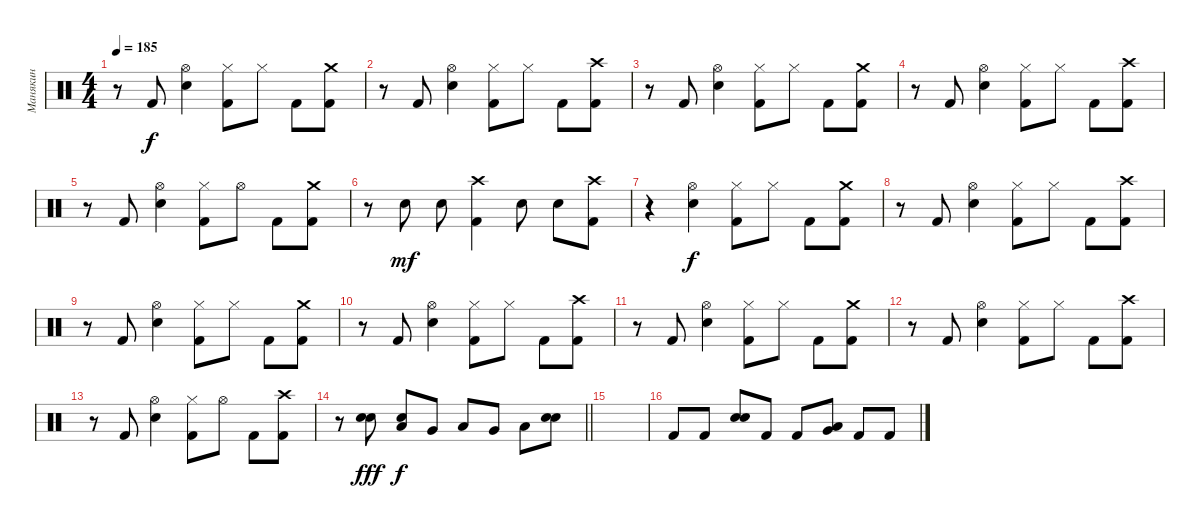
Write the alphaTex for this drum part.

\track ("Манякин" "Манякин") {instrument percussion}
\staff {score}
\articulation defaults
\ts (4 4)
\tempo 185
\clef neutral
\ks c
r.8{dy f} "Kick (hit) 2".8 ("Hi-Hat (open)" "Electric Snare (hit)").4 ("Hi-Hat (closed)" "Kick (hit) 2").8 "Hi-Hat (closed)".8 "Kick (hit) 2".8 ("Crash medium (hit)" "Kick (hit) 2").8 |
r.8 "Kick (hit) 2".8 ("Hi-Hat (open)" "Electric Snare (hit)").4 ("Hi-Hat (closed)" "Kick (hit) 2").8 "Hi-Hat (closed)".8 "Kick (hit) 2".8 ("Crash high (hit)" "Kick (hit) 2").8 |
r.8 "Kick (hit) 2".8 ("Hi-Hat (open)" "Electric Snare (hit)").4 ("Hi-Hat (closed)" "Kick (hit) 2").8 "Hi-Hat (closed)".8 "Kick (hit) 2".8 ("Crash medium (hit)" "Kick (hit) 2").8 |
r.8 "Kick (hit) 2".8 ("Hi-Hat (open)" "Electric Snare (hit)").4 ("Hi-Hat (closed)" "Kick (hit) 2").8 "Hi-Hat (closed)".8 "Kick (hit) 2".8 ("Crash high (hit)" "Kick (hit) 2").8 |
r.8 "Kick (hit) 2".8 ("Hi-Hat (open)" "Electric Snare (hit)").4 ("Hi-Hat (closed)" "Kick (hit) 2").8 "Hi-Hat (open)".8 "Kick (hit) 2".8 ("Crash medium (hit)" "Kick (hit) 2").8 |
r.8 "Electric Snare (hit)".8{dy mf} "Electric Snare (hit)".8 ("Crash high (hit)" "Kick (hit) 2").4 "Electric Snare (hit)".8 "Electric Snare (hit)".8 ("Crash high (hit)" "Kick (hit) 2").8 |
r.4 ("Hi-Hat (open)" "Electric Snare (hit)").4{dy f} ("Hi-Hat (closed)" "Kick (hit) 2").8 "Hi-Hat (closed)".8 "Kick (hit) 2".8 ("Crash medium (hit)" "Kick (hit) 2").8 |
r.8 "Kick (hit) 2".8 ("Hi-Hat (open)" "Electric Snare (hit)").4 ("Hi-Hat (closed)" "Kick (hit) 2").8 "Hi-Hat (closed)".8 "Kick (hit) 2".8 ("Crash high (hit)" "Kick (hit) 2").8 |
r.8 "Kick (hit) 2".8 ("Hi-Hat (open)" "Electric Snare (hit)").4 ("Hi-Hat (closed)" "Kick (hit) 2").8 "Hi-Hat (closed)".8 "Kick (hit) 2".8 ("Crash medium (hit)" "Kick (hit) 2").8 |
r.8 "Kick (hit) 2".8 ("Hi-Hat (open)" "Electric Snare (hit)").4 ("Hi-Hat (closed)" "Kick (hit) 2").8 "Hi-Hat (closed)".8 "Kick (hit) 2".8 ("Crash high (hit)" "Kick (hit) 2").8 |
r.8 "Kick (hit) 2".8 ("Hi-Hat (open)" "Electric Snare (hit)").4 ("Hi-Hat (closed)" "Kick (hit) 2").8 "Hi-Hat (closed)".8 "Kick (hit) 2".8 ("Crash medium (hit)" "Kick (hit) 2").8 |
r.8 "Kick (hit) 2".8 ("Hi-Hat (open)" "Electric Snare (hit)").4 ("Hi-Hat (closed)" "Kick (hit) 2").8 "Hi-Hat (closed)".8 "Kick (hit) 2".8 ("Crash high (hit)" "Kick (hit) 2").8 |
r.8 "Kick (hit) 2".8 ("Hi-Hat (open)" "Electric Snare (hit)").4 ("Hi-Hat (closed)" "Kick (hit) 2").8 "Hi-Hat (open)".8 "Kick (hit) 2".8 ("Crash high (hit)" "Kick (hit) 2").8 |
\barLineRight lightlight
r.8 ("Electric Snare (hit)" "Electric Snare (hit)").8{dy fff} ("Electric Snare (hit)" "Low Tom (hit)").8{dy f} "Very Low Tom (hit)".8 "Low Tom (hit)".8 "Very Low Tom (hit)".8 "Low Floor Tom (hit)".8 ("Electric Snare (hit)" "Electric Snare (hit)").8 |
|
"Kick (hit) 2".8 "Kick (hit) 2".8 ("Electric Snare (hit)" "Electric Snare (hit)").8 "Kick (hit) 2".8 "Kick (hit) 2".8 ("Low Tom (hit)" "Very Low Tom (hit)").8 "Kick (hit) 2".8 "Kick (hit) 2".8
